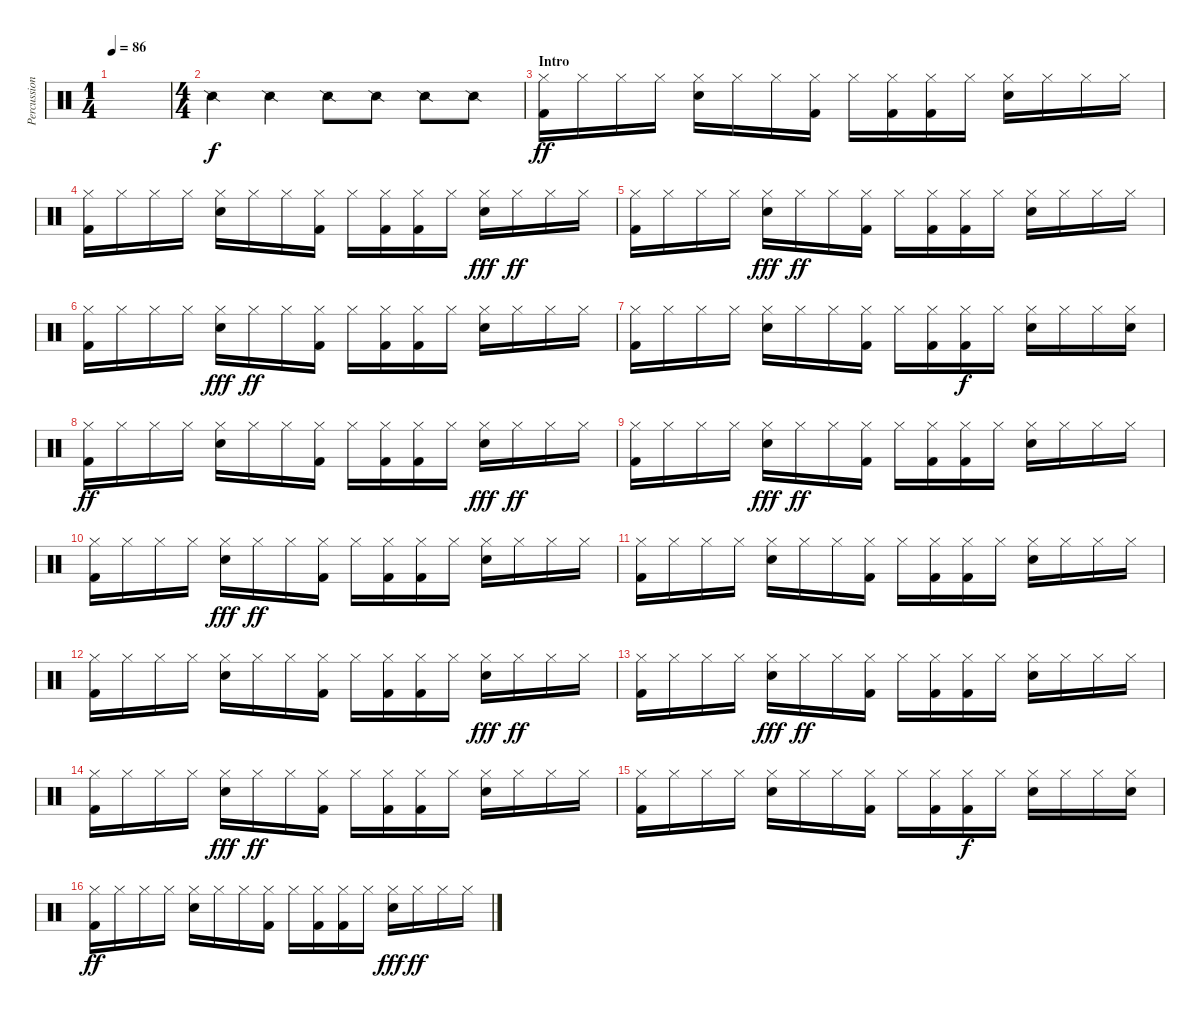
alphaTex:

\track ("Percussion" "Percussion") {instrument percussion}
\staff {score}
\articulation defaults
\ts (1 4)
\tempo 86
\clef neutral
\ks c
|
\ts (4 4)
"Snare (side stick) 2".4 "Snare (side stick) 2".4 "Snare (side stick) 2".8 "Snare (side stick) 2".8 "Snare (side stick) 2".8 "Snare (side stick) 2".8 |
\section ("" "Intro")
("Hi-Hat (closed)" "Kick (hit) 2").16{dy ff} "Hi-Hat (closed)".16 "Hi-Hat (closed)".16 "Hi-Hat (closed)".16 ("Hi-Hat (closed)" "Snare (hit) 2").16 "Hi-Hat (closed)".16 "Hi-Hat (closed)".16 ("Hi-Hat (closed)" "Kick (hit) 2").16 "Hi-Hat (closed)".16 ("Hi-Hat (closed)" "Kick (hit) 2").16 ("Hi-Hat (closed)" "Kick (hit) 2").16 "Hi-Hat (closed)".16 ("Hi-Hat (closed)" "Snare (hit) 2").16 "Hi-Hat (closed)".16 "Hi-Hat (closed)".16 "Hi-Hat (closed)".16 |
("Hi-Hat (closed)" "Kick (hit) 2").16 "Hi-Hat (closed)".16 "Hi-Hat (closed)".16 "Hi-Hat (closed)".16 ("Hi-Hat (closed)" "Snare (hit) 2").16 "Hi-Hat (closed)".16 "Hi-Hat (closed)".16 ("Hi-Hat (closed)" "Kick (hit) 2").16 "Hi-Hat (closed)".16 ("Hi-Hat (closed)" "Kick (hit) 2").16 ("Hi-Hat (closed)" "Kick (hit) 2").16 "Hi-Hat (closed)".16 ("Hi-Hat (closed)" "Snare (hit) 2").16{dy fff} "Hi-Hat (closed)".16{dy ff} "Hi-Hat (closed)".16 "Hi-Hat (closed)".16 |
("Hi-Hat (closed)" "Kick (hit) 2").16 "Hi-Hat (closed)".16 "Hi-Hat (closed)".16 "Hi-Hat (closed)".16 ("Snare (hit) 2" "Hi-Hat (closed)").16{dy fff} "Hi-Hat (closed)".16{dy ff} "Hi-Hat (closed)".16 ("Hi-Hat (closed)" "Kick (hit) 2").16 "Hi-Hat (closed)".16 ("Kick (hit) 2" "Hi-Hat (closed)").16 ("Kick (hit) 2" "Hi-Hat (closed)").16 "Hi-Hat (closed)".16 ("Hi-Hat (closed)" "Snare (hit) 2").16 "Hi-Hat (closed)".16 "Hi-Hat (closed)".16 "Hi-Hat (closed)".16 |
("Hi-Hat (closed)" "Kick (hit) 2").16 "Hi-Hat (closed)".16 "Hi-Hat (closed)".16 "Hi-Hat (closed)".16 ("Snare (hit) 2" "Hi-Hat (closed)").16{dy fff} "Hi-Hat (closed)".16{dy ff} "Hi-Hat (closed)".16 ("Hi-Hat (closed)" "Kick (hit) 2").16 "Hi-Hat (closed)".16 ("Kick (hit) 2" "Hi-Hat (closed)").16 ("Kick (hit) 2" "Hi-Hat (closed)").16 "Hi-Hat (closed)".16 ("Hi-Hat (closed)" "Snare (hit) 2").16 "Hi-Hat (closed)".16 "Hi-Hat (closed)".16 "Hi-Hat (closed)".16 |
("Hi-Hat (closed)" "Kick (hit) 2").16 "Hi-Hat (closed)".16 "Hi-Hat (closed)".16 "Hi-Hat (closed)".16 ("Hi-Hat (closed)" "Snare (hit) 2").16 "Hi-Hat (closed)".16 "Hi-Hat (closed)".16 ("Hi-Hat (closed)" "Kick (hit) 2").16 "Hi-Hat (closed)".16 ("Hi-Hat (closed)" "Kick (hit) 2").16 ("Hi-Hat (closed)" "Kick (hit) 2").16{dy f} "Hi-Hat (closed)".16 ("Hi-Hat (closed)" "Snare (hit) 2").16 "Hi-Hat (closed)".16 "Hi-Hat (closed)".16 ("Hi-Hat (closed)" "Snare (hit) 2").16 |
("Hi-Hat (closed)" "Kick (hit) 2").16{dy ff} "Hi-Hat (closed)".16 "Hi-Hat (closed)".16 "Hi-Hat (closed)".16 ("Hi-Hat (closed)" "Snare (hit) 2").16 "Hi-Hat (closed)".16 "Hi-Hat (closed)".16 ("Hi-Hat (closed)" "Kick (hit) 2").16 "Hi-Hat (closed)".16 ("Hi-Hat (closed)" "Kick (hit) 2").16 ("Hi-Hat (closed)" "Kick (hit) 2").16 "Hi-Hat (closed)".16 ("Hi-Hat (closed)" "Snare (hit) 2").16{dy fff} "Hi-Hat (closed)".16{dy ff} "Hi-Hat (closed)".16 "Hi-Hat (closed)".16 |
("Hi-Hat (closed)" "Kick (hit) 2").16 "Hi-Hat (closed)".16 "Hi-Hat (closed)".16 "Hi-Hat (closed)".16 ("Snare (hit) 2" "Hi-Hat (closed)").16{dy fff} "Hi-Hat (closed)".16{dy ff} "Hi-Hat (closed)".16 ("Hi-Hat (closed)" "Kick (hit) 2").16 "Hi-Hat (closed)".16 ("Kick (hit) 2" "Hi-Hat (closed)").16 ("Kick (hit) 2" "Hi-Hat (closed)").16 "Hi-Hat (closed)".16 ("Hi-Hat (closed)" "Snare (hit) 2").16 "Hi-Hat (closed)".16 "Hi-Hat (closed)".16 "Hi-Hat (closed)".16 |
("Hi-Hat (closed)" "Kick (hit) 2").16 "Hi-Hat (closed)".16 "Hi-Hat (closed)".16 "Hi-Hat (closed)".16 ("Snare (hit) 2" "Hi-Hat (closed)").16{dy fff} "Hi-Hat (closed)".16{dy ff} "Hi-Hat (closed)".16 ("Hi-Hat (closed)" "Kick (hit) 2").16 "Hi-Hat (closed)".16 ("Kick (hit) 2" "Hi-Hat (closed)").16 ("Kick (hit) 2" "Hi-Hat (closed)").16 "Hi-Hat (closed)".16 ("Hi-Hat (closed)" "Snare (hit) 2").16 "Hi-Hat (closed)".16 "Hi-Hat (closed)".16 "Hi-Hat (closed)".16 |
("Hi-Hat (closed)" "Kick (hit) 2").16 "Hi-Hat (closed)".16 "Hi-Hat (closed)".16 "Hi-Hat (closed)".16 ("Hi-Hat (closed)" "Snare (hit) 2").16 "Hi-Hat (closed)".16 "Hi-Hat (closed)".16 ("Hi-Hat (closed)" "Kick (hit) 2").16 "Hi-Hat (closed)".16 ("Hi-Hat (closed)" "Kick (hit) 2").16 ("Hi-Hat (closed)" "Kick (hit) 2").16 "Hi-Hat (closed)".16 ("Hi-Hat (closed)" "Snare (hit) 2").16 "Hi-Hat (closed)".16 "Hi-Hat (closed)".16 "Hi-Hat (closed)".16 |
("Hi-Hat (closed)" "Kick (hit) 2").16 "Hi-Hat (closed)".16 "Hi-Hat (closed)".16 "Hi-Hat (closed)".16 ("Hi-Hat (closed)" "Snare (hit) 2").16 "Hi-Hat (closed)".16 "Hi-Hat (closed)".16 ("Hi-Hat (closed)" "Kick (hit) 2").16 "Hi-Hat (closed)".16 ("Hi-Hat (closed)" "Kick (hit) 2").16 ("Hi-Hat (closed)" "Kick (hit) 2").16 "Hi-Hat (closed)".16 ("Hi-Hat (closed)" "Snare (hit) 2").16{dy fff} "Hi-Hat (closed)".16{dy ff} "Hi-Hat (closed)".16 "Hi-Hat (closed)".16 |
("Hi-Hat (closed)" "Kick (hit) 2").16 "Hi-Hat (closed)".16 "Hi-Hat (closed)".16 "Hi-Hat (closed)".16 ("Snare (hit) 2" "Hi-Hat (closed)").16{dy fff} "Hi-Hat (closed)".16{dy ff} "Hi-Hat (closed)".16 ("Hi-Hat (closed)" "Kick (hit) 2").16 "Hi-Hat (closed)".16 ("Kick (hit) 2" "Hi-Hat (closed)").16 ("Kick (hit) 2" "Hi-Hat (closed)").16 "Hi-Hat (closed)".16 ("Hi-Hat (closed)" "Snare (hit) 2").16 "Hi-Hat (closed)".16 "Hi-Hat (closed)".16 "Hi-Hat (closed)".16 |
("Hi-Hat (closed)" "Kick (hit) 2").16 "Hi-Hat (closed)".16 "Hi-Hat (closed)".16 "Hi-Hat (closed)".16 ("Snare (hit) 2" "Hi-Hat (closed)").16{dy fff} "Hi-Hat (closed)".16{dy ff} "Hi-Hat (closed)".16 ("Hi-Hat (closed)" "Kick (hit) 2").16 "Hi-Hat (closed)".16 ("Kick (hit) 2" "Hi-Hat (closed)").16 ("Kick (hit) 2" "Hi-Hat (closed)").16 "Hi-Hat (closed)".16 ("Hi-Hat (closed)" "Snare (hit) 2").16 "Hi-Hat (closed)".16 "Hi-Hat (closed)".16 "Hi-Hat (closed)".16 |
("Hi-Hat (closed)" "Kick (hit) 2").16 "Hi-Hat (closed)".16 "Hi-Hat (closed)".16 "Hi-Hat (closed)".16 ("Hi-Hat (closed)" "Snare (hit) 2").16 "Hi-Hat (closed)".16 "Hi-Hat (closed)".16 ("Hi-Hat (closed)" "Kick (hit) 2").16 "Hi-Hat (closed)".16 ("Hi-Hat (closed)" "Kick (hit) 2").16 ("Hi-Hat (closed)" "Kick (hit) 2").16{dy f} "Hi-Hat (closed)".16 ("Hi-Hat (closed)" "Snare (hit) 2").16 "Hi-Hat (closed)".16 "Hi-Hat (closed)".16 ("Hi-Hat (closed)" "Snare (hit) 2").16 |
("Hi-Hat (closed)" "Kick (hit) 2").16{dy ff} "Hi-Hat (closed)".16 "Hi-Hat (closed)".16 "Hi-Hat (closed)".16 ("Hi-Hat (closed)" "Snare (hit) 2").16 "Hi-Hat (closed)".16 "Hi-Hat (closed)".16 ("Hi-Hat (closed)" "Kick (hit) 2").16 "Hi-Hat (closed)".16 ("Hi-Hat (closed)" "Kick (hit) 2").16 ("Hi-Hat (closed)" "Kick (hit) 2").16 "Hi-Hat (closed)".16 ("Hi-Hat (closed)" "Snare (hit) 2").16{dy fff} "Hi-Hat (closed)".16{dy ff} "Hi-Hat (closed)".16 "Hi-Hat (closed)".16
